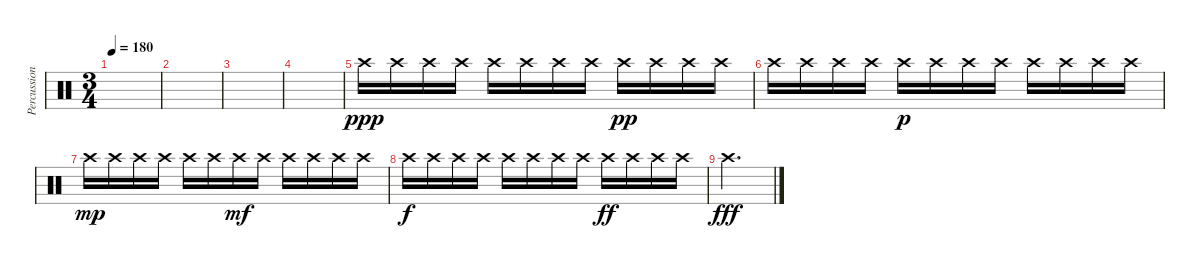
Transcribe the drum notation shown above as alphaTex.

\track ("Percussion" "Percussion") {instrument percussion}
\staff {score}
\articulation defaults
\ts (3 4)
\tempo 180
\clef neutral
\ks c
|
|
|
|
"Crash high (hit)".16{dy ppp} "Crash high (hit)".16 "Crash high (hit)".16 "Crash high (hit)".16 "Crash high (hit)".16 "Crash high (hit)".16 "Crash high (hit)".16 "Crash high (hit)".16 "Crash high (hit)".16{dy pp} "Crash high (hit)".16 "Crash high (hit)".16 "Crash high (hit)".16 |
"Crash high (hit)".16 "Crash high (hit)".16 "Crash high (hit)".16 "Crash high (hit)".16 "Crash high (hit)".16{dy p} "Crash high (hit)".16 "Crash high (hit)".16 "Crash high (hit)".16 "Crash high (hit)".16 "Crash high (hit)".16 "Crash high (hit)".16 "Crash high (hit)".16 |
"Crash high (hit)".16{dy mp} "Crash high (hit)".16 "Crash high (hit)".16 "Crash high (hit)".16 "Crash high (hit)".16 "Crash high (hit)".16 "Crash high (hit)".16{dy mf} "Crash high (hit)".16 "Crash high (hit)".16 "Crash high (hit)".16 "Crash high (hit)".16 "Crash high (hit)".16 |
"Crash high (hit)".16{dy f} "Crash high (hit)".16 "Crash high (hit)".16 "Crash high (hit)".16 "Crash high (hit)".16 "Crash high (hit)".16 "Crash high (hit)".16 "Crash high (hit)".16 "Crash high (hit)".16{dy ff} "Crash high (hit)".16 "Crash high (hit)".16 "Crash high (hit)".16 |
"Crash high (hit)".2{d dy fff}
